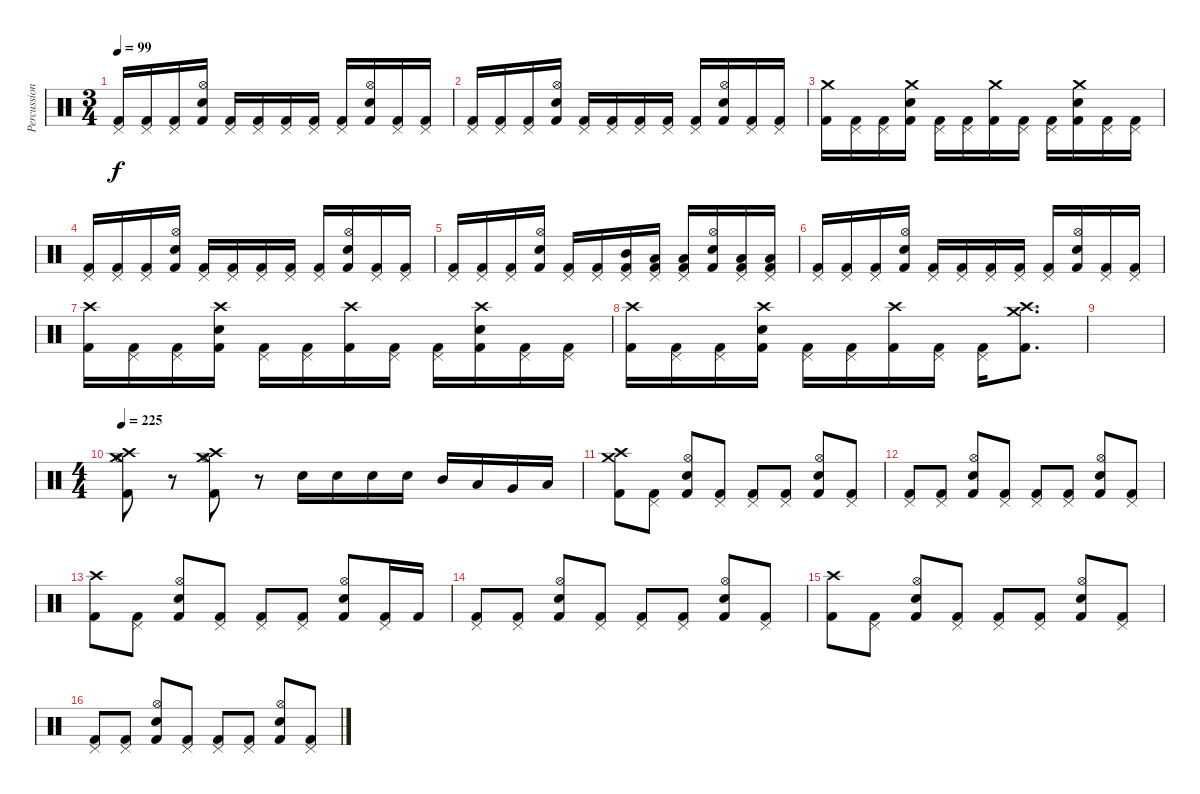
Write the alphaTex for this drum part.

\track ("Percussion" "Percussion") {instrument percussion}
\staff {score}
\articulation defaults
\ts (3 4)
\tempo 99
\clef neutral
\ks c
("Pedal Hi-Hat (hit)" "Kick (hit) 2").16{dy f} ("Pedal Hi-Hat (hit)" "Kick (hit) 2").16 ("Pedal Hi-Hat (hit)" "Kick (hit) 2").16 ("Hi-Hat (open)" "Electric Snare (hit)" "Kick (hit) 2").16 ("Pedal Hi-Hat (hit)" "Kick (hit) 2").16 ("Pedal Hi-Hat (hit)" "Kick (hit) 2").16 ("Pedal Hi-Hat (hit)" "Kick (hit) 2").16 ("Pedal Hi-Hat (hit)" "Kick (hit) 2").16 ("Pedal Hi-Hat (hit)" "Kick (hit) 2").16 ("Hi-Hat (open)" "Electric Snare (hit)" "Kick (hit) 2").16 ("Pedal Hi-Hat (hit)" "Kick (hit) 2").16 ("Pedal Hi-Hat (hit)" "Kick (hit) 2").16 |
("Pedal Hi-Hat (hit)" "Kick (hit) 2").16 ("Pedal Hi-Hat (hit)" "Kick (hit) 2").16 ("Pedal Hi-Hat (hit)" "Kick (hit) 2").16 ("Hi-Hat (open)" "Electric Snare (hit)" "Kick (hit) 2").16 ("Pedal Hi-Hat (hit)" "Kick (hit) 2").16 ("Pedal Hi-Hat (hit)" "Kick (hit) 2").16 ("Pedal Hi-Hat (hit)" "Kick (hit) 2").16 ("Pedal Hi-Hat (hit)" "Kick (hit) 2").16 ("Pedal Hi-Hat (hit)" "Kick (hit) 2").16 ("Hi-Hat (open)" "Electric Snare (hit)" "Kick (hit) 2").16 ("Pedal Hi-Hat (hit)" "Kick (hit) 2").16 ("Pedal Hi-Hat (hit)" "Kick (hit) 2").16 |
("Crash medium (hit)" "Kick (hit) 2").16 ("Pedal Hi-Hat (hit)" "Kick (hit) 2").16 ("Pedal Hi-Hat (hit)" "Kick (hit) 2").16 ("Crash medium (hit)" "Electric Snare (hit)" "Kick (hit) 2").16 ("Pedal Hi-Hat (hit)" "Kick (hit) 2").16 ("Pedal Hi-Hat (hit)" "Kick (hit) 2").16 ("Crash medium (hit)" "Kick (hit) 2").16 ("Pedal Hi-Hat (hit)" "Kick (hit) 2").16 ("Pedal Hi-Hat (hit)" "Kick (hit) 2").16 ("Crash medium (hit)" "Electric Snare (hit)" "Kick (hit) 2").16 ("Pedal Hi-Hat (hit)" "Kick (hit) 2").16 ("Pedal Hi-Hat (hit)" "Kick (hit) 2").16 |
("Pedal Hi-Hat (hit)" "Kick (hit) 2").16 ("Pedal Hi-Hat (hit)" "Kick (hit) 2").16 ("Pedal Hi-Hat (hit)" "Kick (hit) 2").16 ("Hi-Hat (open)" "Electric Snare (hit)" "Kick (hit) 2").16 ("Pedal Hi-Hat (hit)" "Kick (hit) 2").16 ("Pedal Hi-Hat (hit)" "Kick (hit) 2").16 ("Pedal Hi-Hat (hit)" "Kick (hit) 2").16 ("Pedal Hi-Hat (hit)" "Kick (hit) 2").16 ("Pedal Hi-Hat (hit)" "Kick (hit) 2").16 ("Hi-Hat (open)" "Electric Snare (hit)" "Kick (hit) 2").16 ("Pedal Hi-Hat (hit)" "Kick (hit) 2").16 ("Pedal Hi-Hat (hit)" "Kick (hit) 2").16 |
("Pedal Hi-Hat (hit)" "Kick (hit) 2").16 ("Pedal Hi-Hat (hit)" "Kick (hit) 2").16 ("Pedal Hi-Hat (hit)" "Kick (hit) 2").16 ("Hi-Hat (open)" "Electric Snare (hit)" "Kick (hit) 2").16 ("Pedal Hi-Hat (hit)" "Kick (hit) 2").16 ("Pedal Hi-Hat (hit)" "Kick (hit) 2").16 ("Pedal Hi-Hat (hit)" "Mid Tom (hit)" "Kick (hit) 2").16 ("Pedal Hi-Hat (hit)" "Low Tom (hit)" "Kick (hit) 2").16 ("Pedal Hi-Hat (hit)" "Low Tom (hit)" "Kick (hit) 2").16 ("Hi-Hat (open)" "Electric Snare (hit)" "Kick (hit) 2").16 ("Pedal Hi-Hat (hit)" "Low Floor Tom (hit)" "Kick (hit) 2").16 ("Pedal Hi-Hat (hit)" "Low Floor Tom (hit)" "Kick (hit) 2").16 |
("Pedal Hi-Hat (hit)" "Kick (hit) 2").16 ("Pedal Hi-Hat (hit)" "Kick (hit) 2").16 ("Pedal Hi-Hat (hit)" "Kick (hit) 2").16 ("Hi-Hat (open)" "Electric Snare (hit)" "Kick (hit) 2").16 ("Pedal Hi-Hat (hit)" "Kick (hit) 2").16 ("Pedal Hi-Hat (hit)" "Kick (hit) 2").16 ("Pedal Hi-Hat (hit)" "Kick (hit) 2").16 ("Pedal Hi-Hat (hit)" "Kick (hit) 2").16 ("Pedal Hi-Hat (hit)" "Kick (hit) 2").16 ("Hi-Hat (open)" "Electric Snare (hit)" "Kick (hit) 2").16 ("Pedal Hi-Hat (hit)" "Kick (hit) 2").16 ("Pedal Hi-Hat (hit)" "Kick (hit) 2").16 |
("Crash high (hit)" "Kick (hit) 2").16 ("Pedal Hi-Hat (hit)" "Kick (hit) 2").16 ("Pedal Hi-Hat (hit)" "Kick (hit) 2").16 ("Crash high (hit)" "Electric Snare (hit)" "Kick (hit) 2").16 ("Pedal Hi-Hat (hit)" "Kick (hit) 2").16 ("Pedal Hi-Hat (hit)" "Kick (hit) 2").16 ("Crash high (hit)" "Kick (hit) 2").16 ("Pedal Hi-Hat (hit)" "Kick (hit) 2").16 ("Pedal Hi-Hat (hit)" "Kick (hit) 2").16 ("Crash high (hit)" "Electric Snare (hit)" "Kick (hit) 2").16 ("Pedal Hi-Hat (hit)" "Kick (hit) 2").16 ("Pedal Hi-Hat (hit)" "Kick (hit) 2").16 |
("Crash high (hit)" "Kick (hit) 2").16 ("Pedal Hi-Hat (hit)" "Kick (hit) 2").16 ("Pedal Hi-Hat (hit)" "Kick (hit) 2").16 ("Crash high (hit)" "Electric Snare (hit)" "Kick (hit) 2").16 ("Pedal Hi-Hat (hit)" "Kick (hit) 2").16 ("Pedal Hi-Hat (hit)" "Kick (hit) 2").16 ("Crash high (hit)" "Kick (hit) 2").16 ("Pedal Hi-Hat (hit)" "Kick (hit) 2").16 ("Pedal Hi-Hat (hit)" "Kick (hit) 2").16 ("Crash high (hit)" "Crash medium (hit)" "Kick (hit) 2").8{d} |
|
\ts (4 4)
\tempo 225
("Hi-Hat (open)" "Crash high (hit)" "Crash medium (hit)" "Kick (hit) 2").8 r.8 ("Hi-Hat (open)" "Crash high (hit)" "Crash medium (hit)" "Kick (hit) 2").8 r.8 "Electric Snare (hit)".16 "Electric Snare (hit)".16 "Electric Snare (hit)".16 "Electric Snare (hit)".16 "Mid Tom (hit)".16 "Low Tom (hit)".16 "Very Low Tom (hit)".16 "Low Floor Tom (hit)".16 |
("Crash high (hit)" "Crash medium (hit)" "Kick (hit) 2").8 ("Pedal Hi-Hat (hit)" "Kick (hit) 2").8 ("Hi-Hat (open)" "Electric Snare (hit)" "Kick (hit) 2").8 ("Pedal Hi-Hat (hit)" "Kick (hit) 2").8 ("Pedal Hi-Hat (hit)" "Kick (hit) 2").8 ("Pedal Hi-Hat (hit)" "Kick (hit) 2").8 ("Hi-Hat (open)" "Electric Snare (hit)" "Kick (hit) 2").8 ("Pedal Hi-Hat (hit)" "Kick (hit) 2").8 |
("Pedal Hi-Hat (hit)" "Kick (hit) 2").8 ("Pedal Hi-Hat (hit)" "Kick (hit) 2").8 ("Hi-Hat (open)" "Electric Snare (hit)" "Kick (hit) 2").8 ("Pedal Hi-Hat (hit)" "Kick (hit) 2").8 ("Pedal Hi-Hat (hit)" "Kick (hit) 2").8 ("Pedal Hi-Hat (hit)" "Kick (hit) 2").8 ("Hi-Hat (open)" "Electric Snare (hit)" "Kick (hit) 2").8 ("Pedal Hi-Hat (hit)" "Kick (hit) 2").8 |
("Crash high (hit)" "Kick (hit) 2").8 ("Pedal Hi-Hat (hit)" "Kick (hit) 2").8 ("Hi-Hat (open)" "Electric Snare (hit)" "Kick (hit) 2").8 ("Pedal Hi-Hat (hit)" "Kick (hit) 2").8 ("Pedal Hi-Hat (hit)" "Kick (hit) 2").8 ("Pedal Hi-Hat (hit)" "Kick (hit) 2").8 ("Hi-Hat (open)" "Electric Snare (hit)" "Kick (hit) 2").8 ("Pedal Hi-Hat (hit)" "Kick (hit) 2").16 "Kick (hit) 2".16 |
("Pedal Hi-Hat (hit)" "Kick (hit) 2").8 ("Pedal Hi-Hat (hit)" "Kick (hit) 2").8 ("Hi-Hat (open)" "Electric Snare (hit)" "Kick (hit) 2").8 ("Pedal Hi-Hat (hit)" "Kick (hit) 2").8 ("Pedal Hi-Hat (hit)" "Kick (hit) 2").8 ("Pedal Hi-Hat (hit)" "Kick (hit) 2").8 ("Hi-Hat (open)" "Electric Snare (hit)" "Kick (hit) 2").8 ("Pedal Hi-Hat (hit)" "Kick (hit) 2").8 |
("Crash high (hit)" "Kick (hit) 2").8 ("Pedal Hi-Hat (hit)" "Kick (hit) 2").8 ("Hi-Hat (open)" "Electric Snare (hit)" "Kick (hit) 2").8 ("Pedal Hi-Hat (hit)" "Kick (hit) 2").8 ("Pedal Hi-Hat (hit)" "Kick (hit) 2").8 ("Pedal Hi-Hat (hit)" "Kick (hit) 2").8 ("Hi-Hat (open)" "Electric Snare (hit)" "Kick (hit) 2").8 ("Pedal Hi-Hat (hit)" "Kick (hit) 2").8 |
("Pedal Hi-Hat (hit)" "Kick (hit) 2").8 ("Pedal Hi-Hat (hit)" "Kick (hit) 2").8 ("Hi-Hat (open)" "Electric Snare (hit)" "Kick (hit) 2").8 ("Pedal Hi-Hat (hit)" "Kick (hit) 2").8 ("Pedal Hi-Hat (hit)" "Kick (hit) 2").8 ("Pedal Hi-Hat (hit)" "Kick (hit) 2").8 ("Hi-Hat (open)" "Electric Snare (hit)" "Kick (hit) 2").8 ("Pedal Hi-Hat (hit)" "Kick (hit) 2").8
